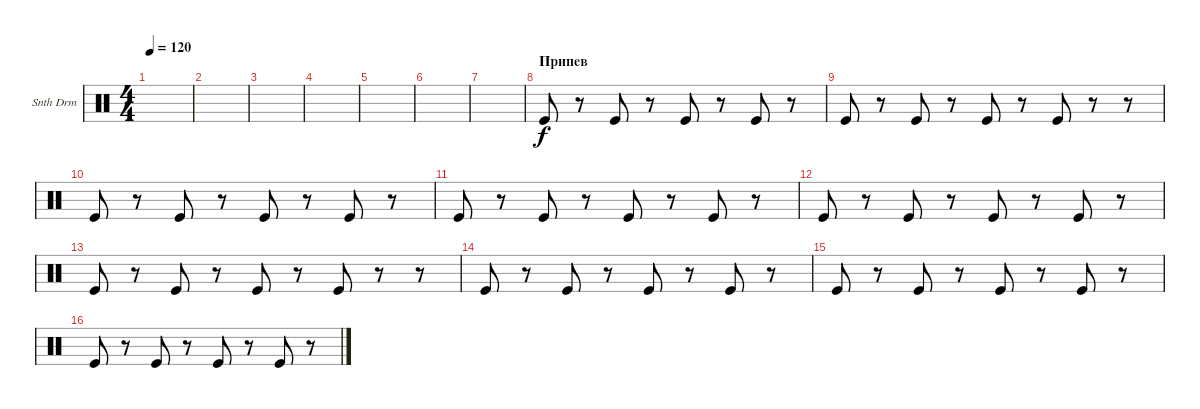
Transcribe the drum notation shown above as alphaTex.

\defaultSystemsLayout 4
\bracketExtendMode groupsimilarinstruments
\firstSystemTrackNameOrientation horizontal
\otherSystemsTrackNameOrientation horizontal
\track ("Synth Drum" "Snth Drm") {instrument percussion}
\staff {score}
\articulation defaults
\ts (4 4)
\tempo 120
\clef neutral
\ks c
|
|
|
|
|
|
|
\section ("" "Припев")
"Kick (hit)".8 r.8 "Kick (hit)".8 r.8 "Kick (hit)".8 r.8 "Kick (hit)".8 r.8 |
"Kick (hit)".8 r.8 "Kick (hit)".8 r.8 "Kick (hit)".8 r.8 "Kick (hit)".8 r.8 r.8 |
"Kick (hit)".8 r.8 "Kick (hit)".8 r.8 "Kick (hit)".8 r.8 "Kick (hit)".8 r.8 |
"Kick (hit)".8 r.8 "Kick (hit)".8 r.8 "Kick (hit)".8 r.8 "Kick (hit)".8 r.8 |
"Kick (hit)".8 r.8 "Kick (hit)".8 r.8 "Kick (hit)".8 r.8 "Kick (hit)".8 r.8 |
"Kick (hit)".8 r.8 "Kick (hit)".8 r.8 "Kick (hit)".8 r.8 "Kick (hit)".8 r.8 r.8 |
"Kick (hit)".8 r.8 "Kick (hit)".8 r.8 "Kick (hit)".8 r.8 "Kick (hit)".8 r.8 |
"Kick (hit)".8 r.8 "Kick (hit)".8 r.8 "Kick (hit)".8 r.8 "Kick (hit)".8 r.8 |
"Kick (hit)".8 r.8 "Kick (hit)".8 r.8 "Kick (hit)".8 r.8 "Kick (hit)".8 r.8
